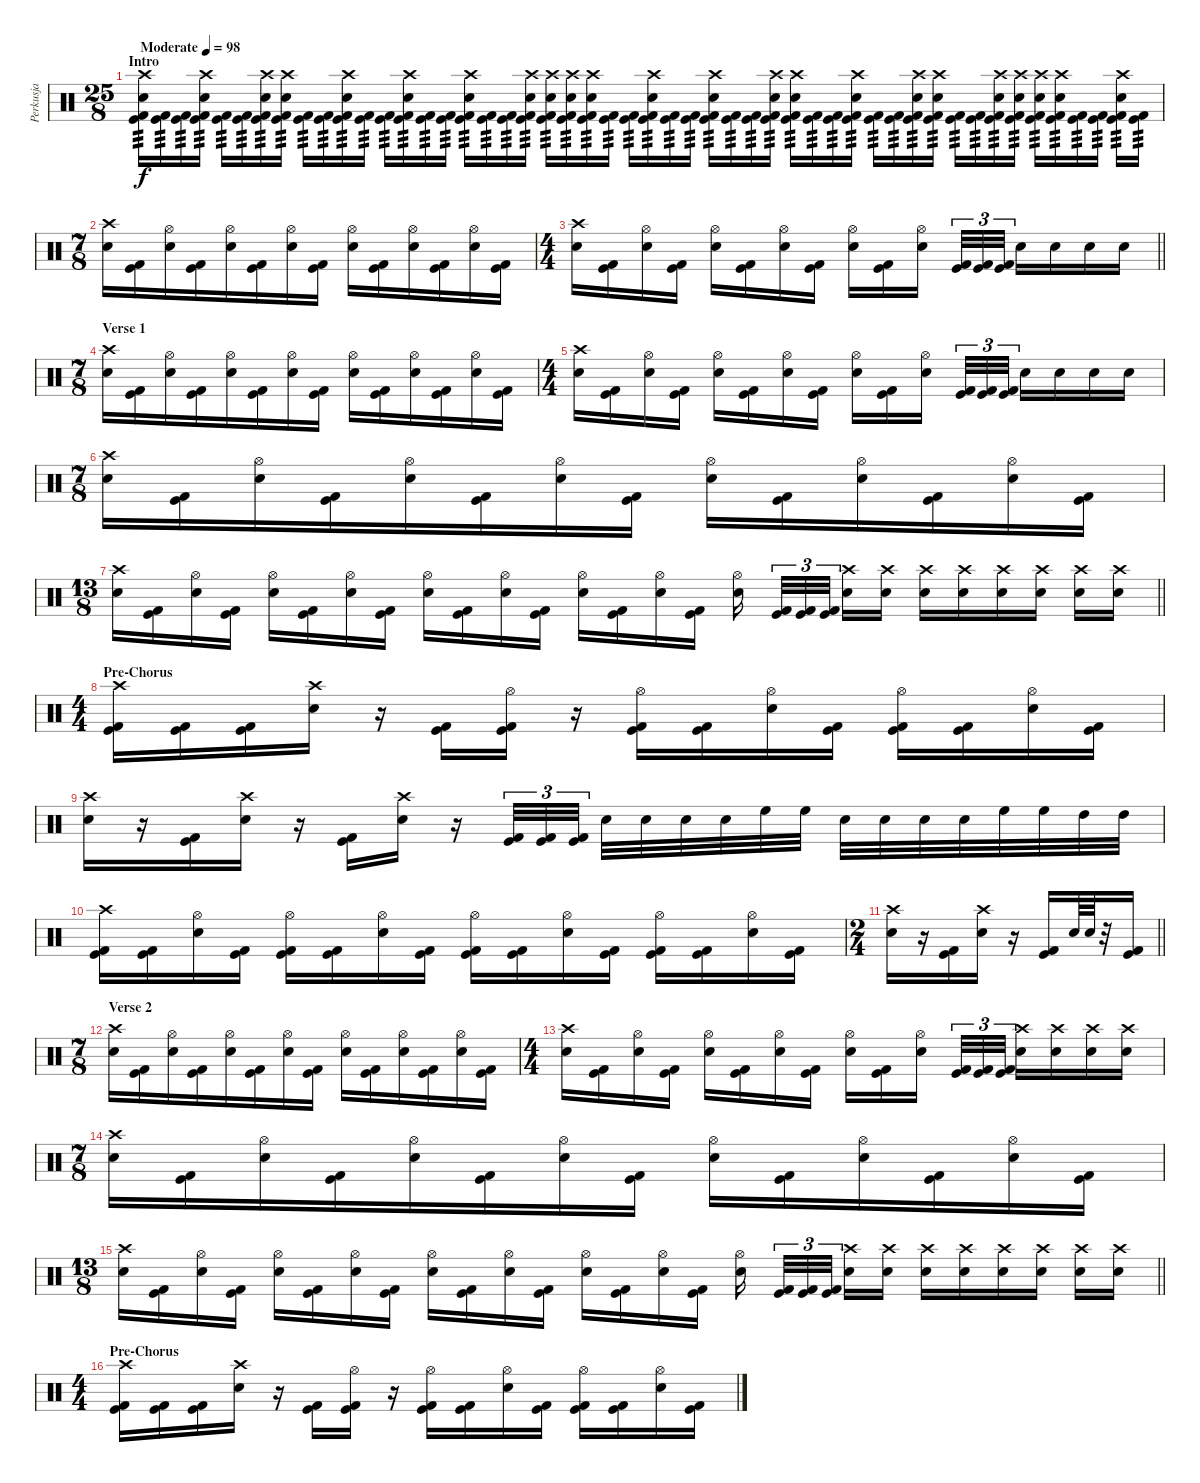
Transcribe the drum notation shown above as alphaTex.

\track ("Perkusja" "Perkusja") {instrument percussion}
\staff {score}
\articulation defaults
\ts (25 8)
\section ("" "Intro")
\tempo (98 "Moderate")
\clef neutral
\ks c
("Crash high (hit)" "Electric Snare (hit)" "Kick (hit)" "Kick (hit) 2").16{tp 3 dy f} ("Kick (hit)" "Kick (hit) 2").16{tp 3} ("Kick (hit)" "Kick (hit) 2").16{tp 3} ("Crash high (hit)" "Electric Snare (hit)" "Kick (hit)" "Kick (hit) 2").16{tp 3} ("Kick (hit)" "Kick (hit) 2").16{tp 3} ("Kick (hit)" "Kick (hit) 2").16{tp 3} ("Crash high (hit)" "Snare (hit) 2" "Kick (hit)" "Kick (hit) 2").16{tp 3} ("Crash high (hit)" "Snare (hit) 2" "Kick (hit)" "Kick (hit) 2").16{tp 3} ("Kick (hit)" "Kick (hit) 2").16{tp 3} ("Kick (hit)" "Kick (hit) 2").16{tp 3} ("Crash high (hit)" "Electric Snare (hit)" "Kick (hit)" "Kick (hit) 2").16{tp 3} ("Kick (hit)" "Kick (hit) 2").16{tp 3} ("Kick (hit)" "Kick (hit) 2").16{tp 3} ("Crash high (hit)" "Electric Snare (hit)" "Kick (hit)" "Kick (hit) 2").16{tp 3} ("Kick (hit)" "Kick (hit) 2").16{tp 3} ("Kick (hit)" "Kick (hit) 2").16{tp 3} ("Crash high (hit)" "Electric Snare (hit)" "Kick (hit)" "Kick (hit) 2").16{tp 3} ("Kick (hit)" "Kick (hit) 2").16{tp 3} ("Kick (hit)" "Kick (hit) 2").16{tp 3} ("Crash high (hit)" "Snare (hit) 2" "Kick (hit)" "Kick (hit) 2").16{tp 3} ("Crash high (hit)" "Snare (hit) 2" "Kick (hit)" "Kick (hit) 2").16{tp 3} ("Crash high (hit)" "Snare (hit) 2" "Kick (hit)" "Kick (hit) 2").16{tp 3} ("Crash high (hit)" "Electric Snare (hit)" "Kick (hit)" "Kick (hit) 2").16{tp 3} ("Kick (hit)" "Kick (hit) 2").16{tp 3} ("Kick (hit)" "Kick (hit) 2").16{tp 3} ("Crash high (hit)" "Electric Snare (hit)" "Kick (hit)" "Kick (hit) 2").16{tp 3} ("Kick (hit)" "Kick (hit) 2").16{tp 3} ("Kick (hit)" "Kick (hit) 2").16{tp 3} ("Crash high (hit)" "Electric Snare (hit)" "Kick (hit)" "Kick (hit) 2").16{tp 3} ("Kick (hit)" "Kick (hit) 2").16{tp 3} ("Kick (hit)" "Kick (hit) 2").16{tp 3} ("Crash high (hit)" "Electric Snare (hit)" "Kick (hit)" "Kick (hit) 2").16{tp 3} ("Crash high (hit)" "Electric Snare (hit)" "Kick (hit)" "Kick (hit) 2").16{tp 3} ("Kick (hit)" "Kick (hit) 2").16{tp 3} ("Kick (hit)" "Kick (hit) 2").16{tp 3} ("Crash high (hit)" "Snare (hit) 2" "Kick (hit)" "Kick (hit) 2").16{tp 3} ("Kick (hit)" "Kick (hit) 2").16{tp 3} ("Kick (hit)" "Kick (hit) 2").16{tp 3} ("Crash high (hit)" "Electric Snare (hit)" "Kick (hit)" "Kick (hit) 2").16{tp 3} ("Crash high (hit)" "Electric Snare (hit)" "Kick (hit)" "Kick (hit) 2").16{tp 3} ("Kick (hit)" "Kick (hit) 2").16{tp 3} ("Kick (hit)" "Kick (hit) 2").16{tp 3} ("Crash high (hit)" "Electric Snare (hit)" "Kick (hit)" "Kick (hit) 2").16{tp 3} ("Crash high (hit)" "Electric Snare (hit)" "Kick (hit)" "Kick (hit) 2").16{tp 3} ("Crash high (hit)" "Electric Snare (hit)" "Kick (hit)" "Kick (hit) 2").16{tp 3} ("Crash high (hit)" "Electric Snare (hit)" "Kick (hit)" "Kick (hit) 2").16{tp 3} ("Kick (hit)" "Kick (hit) 2").16{tp 3} ("Kick (hit)" "Kick (hit) 2").16{tp 3} ("Crash high (hit)" "Electric Snare (hit)" "Kick (hit)" "Kick (hit) 2").16{tp 3} ("Kick (hit)" "Kick (hit) 2").16{tp 3} |
\ts (7 8)
("Crash high (hit)" "Electric Snare (hit)").16 ("Kick (hit)" "Kick (hit) 2").16 ("Hi-Hat (open)" "Electric Snare (hit)").16 ("Kick (hit)" "Kick (hit) 2").16 ("Hi-Hat (open)" "Electric Snare (hit)").16 ("Kick (hit)" "Kick (hit) 2").16 ("Hi-Hat (open)" "Electric Snare (hit)").16 ("Kick (hit)" "Kick (hit) 2").16 ("Hi-Hat (open)" "Electric Snare (hit)").16 ("Kick (hit)" "Kick (hit) 2").16 ("Hi-Hat (open)" "Electric Snare (hit)").16 ("Kick (hit)" "Kick (hit) 2").16 ("Hi-Hat (open)" "Electric Snare (hit)").16 ("Kick (hit)" "Kick (hit) 2").16 |
\ts (4 4)
\barLineRight lightlight
("Crash high (hit)" "Electric Snare (hit)").16 ("Kick (hit)" "Kick (hit) 2").16 ("Hi-Hat (open)" "Electric Snare (hit)").16 ("Kick (hit)" "Kick (hit) 2").16 ("Hi-Hat (open)" "Electric Snare (hit)").16 ("Kick (hit)" "Kick (hit) 2").16 ("Hi-Hat (open)" "Electric Snare (hit)").16 ("Kick (hit)" "Kick (hit) 2").16 ("Hi-Hat (open)" "Electric Snare (hit)").16 ("Kick (hit)" "Kick (hit) 2").16 ("Hi-Hat (open)" "Electric Snare (hit)").16{beam splitsecondary} ("Kick (hit)" "Kick (hit) 2").32{tu (3 2)} ("Kick (hit)" "Kick (hit) 2").32{tu (3 2)} ("Kick (hit)" "Kick (hit) 2").32{tu (3 2)} "Electric Snare (hit)".16 "Electric Snare (hit)".16 "Electric Snare (hit)".16 "Electric Snare (hit)".16 |
\ts (7 8)
\section ("" "Verse 1")
("Crash high (hit)" "Electric Snare (hit)").16 ("Kick (hit)" "Kick (hit) 2").16 ("Hi-Hat (open)" "Electric Snare (hit)").16 ("Kick (hit)" "Kick (hit) 2").16 ("Hi-Hat (open)" "Electric Snare (hit)").16 ("Kick (hit)" "Kick (hit) 2").16 ("Hi-Hat (open)" "Electric Snare (hit)").16 ("Kick (hit)" "Kick (hit) 2").16 ("Hi-Hat (open)" "Electric Snare (hit)").16 ("Kick (hit)" "Kick (hit) 2").16 ("Hi-Hat (open)" "Electric Snare (hit)").16 ("Kick (hit)" "Kick (hit) 2").16 ("Hi-Hat (open)" "Electric Snare (hit)").16 ("Kick (hit)" "Kick (hit) 2").16 |
\ts (4 4)
("Crash high (hit)" "Electric Snare (hit)").16 ("Kick (hit)" "Kick (hit) 2").16 ("Hi-Hat (open)" "Electric Snare (hit)").16 ("Kick (hit)" "Kick (hit) 2").16 ("Hi-Hat (open)" "Electric Snare (hit)").16 ("Kick (hit)" "Kick (hit) 2").16 ("Hi-Hat (open)" "Electric Snare (hit)").16 ("Kick (hit)" "Kick (hit) 2").16 ("Hi-Hat (open)" "Electric Snare (hit)").16 ("Kick (hit)" "Kick (hit) 2").16 ("Hi-Hat (open)" "Electric Snare (hit)").16{beam splitsecondary} ("Kick (hit)" "Kick (hit) 2").32{tu (3 2)} ("Kick (hit)" "Kick (hit) 2").32{tu (3 2)} ("Kick (hit)" "Kick (hit) 2").32{tu (3 2)} "Electric Snare (hit)".16 "Electric Snare (hit)".16 "Electric Snare (hit)".16 "Electric Snare (hit)".16 |
\ts (7 8)
("Crash high (hit)" "Electric Snare (hit)").16 ("Kick (hit)" "Kick (hit) 2").16 ("Hi-Hat (open)" "Electric Snare (hit)").16 ("Kick (hit)" "Kick (hit) 2").16 ("Hi-Hat (open)" "Electric Snare (hit)").16 ("Kick (hit)" "Kick (hit) 2").16 ("Hi-Hat (open)" "Electric Snare (hit)").16 ("Kick (hit)" "Kick (hit) 2").16 ("Hi-Hat (open)" "Electric Snare (hit)").16 ("Kick (hit)" "Kick (hit) 2").16 ("Hi-Hat (open)" "Electric Snare (hit)").16 ("Kick (hit)" "Kick (hit) 2").16 ("Hi-Hat (open)" "Electric Snare (hit)").16 ("Kick (hit)" "Kick (hit) 2").16 |
\ts (13 8)
\barLineRight lightlight
("Crash high (hit)" "Electric Snare (hit)").16 ("Kick (hit)" "Kick (hit) 2").16 ("Hi-Hat (open)" "Electric Snare (hit)").16 ("Kick (hit)" "Kick (hit) 2").16 ("Hi-Hat (open)" "Electric Snare (hit)").16 ("Kick (hit)" "Kick (hit) 2").16 ("Hi-Hat (open)" "Electric Snare (hit)").16 ("Kick (hit)" "Kick (hit) 2").16 ("Hi-Hat (open)" "Electric Snare (hit)").16 ("Kick (hit)" "Kick (hit) 2").16 ("Hi-Hat (open)" "Electric Snare (hit)").16 ("Kick (hit)" "Kick (hit) 2").16 ("Hi-Hat (open)" "Electric Snare (hit)").16 ("Kick (hit)" "Kick (hit) 2").16 ("Hi-Hat (open)" "Electric Snare (hit)").16 ("Kick (hit)" "Kick (hit) 2").16 ("Hi-Hat (open)" "Electric Snare (hit)").16{beam splitsecondary} ("Kick (hit)" "Kick (hit) 2").32{tu (3 2)} ("Kick (hit)" "Kick (hit) 2").32{tu (3 2)} ("Kick (hit)" "Kick (hit) 2").32{tu (3 2)} ("Crash high (hit)" "Electric Snare (hit)").16 ("Crash high (hit)" "Electric Snare (hit)").16 ("Crash high (hit)" "Electric Snare (hit)").16 ("Crash high (hit)" "Electric Snare (hit)").16 ("Crash high (hit)" "Electric Snare (hit)").16 ("Crash high (hit)" "Electric Snare (hit)").16 ("Crash high (hit)" "Electric Snare (hit)").16 ("Crash high (hit)" "Electric Snare (hit)").16 |
\ts (4 4)
\section ("" "Pre-Chorus")
("Crash high (hit)" "Kick (hit)" "Kick (hit) 2").16 ("Kick (hit)" "Kick (hit) 2").16 ("Kick (hit)" "Kick (hit) 2").16 ("Crash high (hit)" "Electric Snare (hit)").16 r.16 ("Kick (hit)" "Kick (hit) 2").16 ("Hi-Hat (open)" "Kick (hit)" "Kick (hit) 2").16 r.16 ("Hi-Hat (open)" "Kick (hit)" "Kick (hit) 2").16 ("Kick (hit)" "Kick (hit) 2").16 ("Hi-Hat (open)" "Electric Snare (hit)").16 ("Kick (hit)" "Kick (hit) 2").16 ("Hi-Hat (open)" "Kick (hit)" "Kick (hit) 2").16 ("Kick (hit)" "Kick (hit) 2").16 ("Hi-Hat (open)" "Electric Snare (hit)").16 ("Kick (hit)" "Kick (hit) 2").16 |
("Crash high (hit)" "Electric Snare (hit)").16 r.16 ("Kick (hit)" "Kick (hit) 2").16 ("Crash high (hit)" "Electric Snare (hit)").16 r.16 ("Kick (hit)" "Kick (hit) 2").16 ("Crash high (hit)" "Electric Snare (hit)").16 r.16 ("Kick (hit)" "Kick (hit) 2").32{tu (3 2)} ("Kick (hit)" "Kick (hit) 2").32{tu (3 2)} ("Kick (hit)" "Kick (hit) 2").32{tu (3 2) beam splitsecondary} "Electric Snare (hit)".32 "Electric Snare (hit)".32 "Electric Snare (hit)".32 "Electric Snare (hit)".32 "High Floor Tom (hit)".32 "High Floor Tom (hit)".32 "Electric Snare (hit)".32 "Electric Snare (hit)".32 "Electric Snare (hit)".32 "Electric Snare (hit)".32 "High Floor Tom (hit)".32 "High Floor Tom (hit)".32 "High Tom (hit)".32 "High Tom (hit)".32 |
("Crash high (hit)" "Kick (hit)" "Kick (hit) 2").16 ("Kick (hit)" "Kick (hit) 2").16 ("Hi-Hat (open)" "Electric Snare (hit)").16 ("Kick (hit)" "Kick (hit) 2").16 ("Hi-Hat (open)" "Kick (hit)" "Kick (hit) 2").16 ("Kick (hit)" "Kick (hit) 2").16 ("Hi-Hat (open)" "Electric Snare (hit)").16 ("Kick (hit)" "Kick (hit) 2").16 ("Hi-Hat (open)" "Kick (hit)" "Kick (hit) 2").16 ("Kick (hit)" "Kick (hit) 2").16 ("Hi-Hat (open)" "Electric Snare (hit)").16 ("Kick (hit)" "Kick (hit) 2").16 ("Hi-Hat (open)" "Kick (hit)" "Kick (hit) 2").16 ("Kick (hit)" "Kick (hit) 2").16 ("Hi-Hat (open)" "Electric Snare (hit)").16 ("Kick (hit)" "Kick (hit) 2").16 |
\ts (2 4)
\barLineRight lightlight
("Crash high (hit)" "Electric Snare (hit)").16 r.16 ("Kick (hit)" "Kick (hit) 2").16 ("Crash high (hit)" "Electric Snare (hit)").16 r.16 ("Kick (hit)" "Kick (hit) 2").16 "Electric Snare (hit)".64 "Electric Snare (hit)".64 r.32 ("Kick (hit)" "Kick (hit) 2").16 |
\ts (7 8)
\section ("" "Verse 2")
("Crash high (hit)" "Electric Snare (hit)").16 ("Kick (hit)" "Kick (hit) 2").16 ("Hi-Hat (open)" "Electric Snare (hit)").16 ("Kick (hit)" "Kick (hit) 2").16 ("Hi-Hat (open)" "Electric Snare (hit)").16 ("Kick (hit)" "Kick (hit) 2").16 ("Hi-Hat (open)" "Electric Snare (hit)").16 ("Kick (hit)" "Kick (hit) 2").16 ("Hi-Hat (open)" "Electric Snare (hit)").16 ("Kick (hit)" "Kick (hit) 2").16 ("Hi-Hat (open)" "Electric Snare (hit)").16 ("Kick (hit)" "Kick (hit) 2").16 ("Hi-Hat (open)" "Electric Snare (hit)").16 ("Kick (hit)" "Kick (hit) 2").16 |
\ts (4 4)
("Crash high (hit)" "Electric Snare (hit)").16 ("Kick (hit)" "Kick (hit) 2").16 ("Hi-Hat (open)" "Electric Snare (hit)").16 ("Kick (hit)" "Kick (hit) 2").16 ("Hi-Hat (open)" "Electric Snare (hit)").16 ("Kick (hit)" "Kick (hit) 2").16 ("Hi-Hat (open)" "Electric Snare (hit)").16 ("Kick (hit)" "Kick (hit) 2").16 ("Hi-Hat (open)" "Electric Snare (hit)").16 ("Kick (hit)" "Kick (hit) 2").16 ("Hi-Hat (open)" "Electric Snare (hit)").16{beam splitsecondary} ("Kick (hit)" "Kick (hit) 2").32{tu (3 2)} ("Kick (hit)" "Kick (hit) 2").32{tu (3 2)} ("Kick (hit)" "Kick (hit) 2").32{tu (3 2)} ("Crash high (hit)" "Electric Snare (hit)").16 ("Crash high (hit)" "Electric Snare (hit)").16 ("Crash high (hit)" "Electric Snare (hit)").16 ("Crash high (hit)" "Electric Snare (hit)").16 |
\ts (7 8)
("Crash high (hit)" "Electric Snare (hit)").16 ("Kick (hit)" "Kick (hit) 2").16 ("Hi-Hat (open)" "Electric Snare (hit)").16 ("Kick (hit)" "Kick (hit) 2").16 ("Hi-Hat (open)" "Electric Snare (hit)").16 ("Kick (hit)" "Kick (hit) 2").16 ("Hi-Hat (open)" "Electric Snare (hit)").16 ("Kick (hit)" "Kick (hit) 2").16 ("Hi-Hat (open)" "Electric Snare (hit)").16 ("Kick (hit)" "Kick (hit) 2").16 ("Hi-Hat (open)" "Electric Snare (hit)").16 ("Kick (hit)" "Kick (hit) 2").16 ("Hi-Hat (open)" "Electric Snare (hit)").16 ("Kick (hit)" "Kick (hit) 2").16 |
\ts (13 8)
\barLineRight lightlight
("Crash high (hit)" "Electric Snare (hit)").16 ("Kick (hit)" "Kick (hit) 2").16 ("Hi-Hat (open)" "Electric Snare (hit)").16 ("Kick (hit)" "Kick (hit) 2").16 ("Hi-Hat (open)" "Electric Snare (hit)").16 ("Kick (hit)" "Kick (hit) 2").16 ("Hi-Hat (open)" "Electric Snare (hit)").16 ("Kick (hit)" "Kick (hit) 2").16 ("Hi-Hat (open)" "Electric Snare (hit)").16 ("Kick (hit)" "Kick (hit) 2").16 ("Hi-Hat (open)" "Electric Snare (hit)").16 ("Kick (hit)" "Kick (hit) 2").16 ("Hi-Hat (open)" "Electric Snare (hit)").16 ("Kick (hit)" "Kick (hit) 2").16 ("Hi-Hat (open)" "Electric Snare (hit)").16 ("Kick (hit)" "Kick (hit) 2").16 ("Hi-Hat (open)" "Electric Snare (hit)").16{beam splitsecondary} ("Kick (hit)" "Kick (hit) 2").32{tu (3 2)} ("Kick (hit)" "Kick (hit) 2").32{tu (3 2)} ("Kick (hit)" "Kick (hit) 2").32{tu (3 2)} ("Crash high (hit)" "Electric Snare (hit)").16 ("Crash high (hit)" "Electric Snare (hit)").16 ("Crash high (hit)" "Electric Snare (hit)").16 ("Crash high (hit)" "Electric Snare (hit)").16 ("Crash high (hit)" "Electric Snare (hit)").16 ("Crash high (hit)" "Electric Snare (hit)").16 ("Crash high (hit)" "Electric Snare (hit)").16 ("Crash high (hit)" "Electric Snare (hit)").16 |
\ts (4 4)
\section ("" "Pre-Chorus")
("Crash high (hit)" "Kick (hit)" "Kick (hit) 2").16 ("Kick (hit)" "Kick (hit) 2").16 ("Kick (hit)" "Kick (hit) 2").16 ("Crash high (hit)" "Electric Snare (hit)").16 r.16 ("Kick (hit)" "Kick (hit) 2").16 ("Hi-Hat (open)" "Kick (hit)" "Kick (hit) 2").16 r.16 ("Hi-Hat (open)" "Kick (hit)" "Kick (hit) 2").16 ("Kick (hit)" "Kick (hit) 2").16 ("Hi-Hat (open)" "Electric Snare (hit)").16 ("Kick (hit)" "Kick (hit) 2").16 ("Hi-Hat (open)" "Kick (hit)" "Kick (hit) 2").16 ("Kick (hit)" "Kick (hit) 2").16 ("Hi-Hat (open)" "Electric Snare (hit)").16 ("Kick (hit)" "Kick (hit) 2").16
